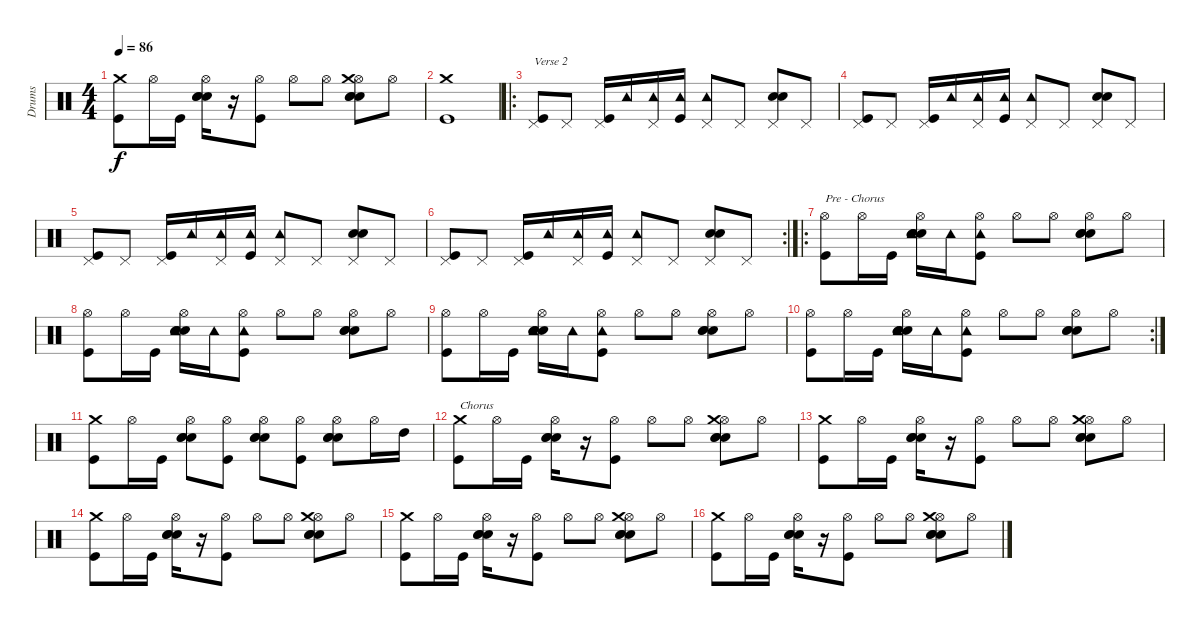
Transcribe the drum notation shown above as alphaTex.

\track ("Drums" "Drums") {instrument percussion}
\staff {score}
\articulation defaults
\ts (4 4)
\tempo 86
\clef neutral
\ks c
("Kick (hit)" "Crash medium (hit)").8{dy f} "Hi-Hat (open)".16 "Kick (hit)".16 ("Electric Snare (hit)" "Hi-Hat (open)" "Electric Snare (hit)" "Electric Snare (hit)").16 r.16 ("Kick (hit)" "Hi-Hat (open)").8 "Hi-Hat (open)".8 "Hi-Hat (open)".8 ("Electric Snare (hit)" "Hi-Hat (open)" "Electric Snare (hit)" "Electric Snare (hit)" "Crash medium (hit)").8 "Hi-Hat (open)".8 |
("Kick (hit)" "Crash medium (hit)").1 |
\ro
("Kick (hit)" "Pedal Hi-Hat (hit)").8{txt "Verse 2"} "Pedal Hi-Hat (hit)".8 ("Kick (hit)" "Pedal Hi-Hat (hit)").16 "Tambourine (hit)".16 ("Pedal Hi-Hat (hit)" "Tambourine (hit)").16 ("Kick (hit)" "Tambourine (hit)").16 ("Pedal Hi-Hat (hit)" "Tambourine (hit)").8 "Pedal Hi-Hat (hit)".8 ("Electric Snare (hit)" "Pedal Hi-Hat (hit)" "Electric Snare (hit)").8 "Pedal Hi-Hat (hit)".8 |
("Kick (hit)" "Pedal Hi-Hat (hit)").8 "Pedal Hi-Hat (hit)".8 ("Kick (hit)" "Pedal Hi-Hat (hit)").16 "Tambourine (hit)".16 ("Pedal Hi-Hat (hit)" "Tambourine (hit)").16 ("Kick (hit)" "Tambourine (hit)").16 ("Pedal Hi-Hat (hit)" "Tambourine (hit)").8 "Pedal Hi-Hat (hit)".8 ("Electric Snare (hit)" "Pedal Hi-Hat (hit)" "Electric Snare (hit)").8 "Pedal Hi-Hat (hit)".8 |
("Kick (hit)" "Pedal Hi-Hat (hit)").8 "Pedal Hi-Hat (hit)".8 ("Kick (hit)" "Pedal Hi-Hat (hit)").16 "Tambourine (hit)".16 ("Pedal Hi-Hat (hit)" "Tambourine (hit)").16 ("Kick (hit)" "Tambourine (hit)").16 ("Pedal Hi-Hat (hit)" "Tambourine (hit)").8 "Pedal Hi-Hat (hit)".8 ("Electric Snare (hit)" "Pedal Hi-Hat (hit)" "Electric Snare (hit)").8 "Pedal Hi-Hat (hit)".8 |
\rc 2
("Kick (hit)" "Pedal Hi-Hat (hit)").8 "Pedal Hi-Hat (hit)".8 ("Kick (hit)" "Pedal Hi-Hat (hit)").16 "Tambourine (hit)".16 ("Pedal Hi-Hat (hit)" "Tambourine (hit)").16 ("Kick (hit)" "Tambourine (hit)").16 ("Pedal Hi-Hat (hit)" "Tambourine (hit)").8 "Pedal Hi-Hat (hit)".8 ("Electric Snare (hit)" "Pedal Hi-Hat (hit)" "Electric Snare (hit)").8 "Pedal Hi-Hat (hit)".8 |
\ro
("Kick (hit)" "Hi-Hat (open)").8{txt "Pre - Chorus"} "Hi-Hat (open)".16 "Kick (hit)".16 ("Electric Snare (hit)" "Hi-Hat (open)" "Tambourine (hit)" "Electric Snare (hit)" "Electric Snare (hit)").16 "Tambourine (hit)".16 ("Kick (hit)" "Hi-Hat (open)" "Tambourine (hit)").8 "Hi-Hat (open)".8 "Hi-Hat (open)".8 ("Electric Snare (hit)" "Hi-Hat (open)" "Electric Snare (hit)" "Electric Snare (hit)").8 "Hi-Hat (open)".8 |
("Kick (hit)" "Hi-Hat (open)").8 "Hi-Hat (open)".16 "Kick (hit)".16 ("Electric Snare (hit)" "Hi-Hat (open)" "Tambourine (hit)" "Electric Snare (hit)" "Electric Snare (hit)").16 "Tambourine (hit)".16 ("Kick (hit)" "Hi-Hat (open)" "Tambourine (hit)").8 "Hi-Hat (open)".8 "Hi-Hat (open)".8 ("Electric Snare (hit)" "Hi-Hat (open)" "Electric Snare (hit)" "Electric Snare (hit)").8 "Hi-Hat (open)".8 |
("Kick (hit)" "Hi-Hat (open)").8 "Hi-Hat (open)".16 "Kick (hit)".16 ("Electric Snare (hit)" "Hi-Hat (open)" "Tambourine (hit)" "Electric Snare (hit)" "Electric Snare (hit)").16 "Tambourine (hit)".16 ("Kick (hit)" "Hi-Hat (open)" "Tambourine (hit)").8 "Hi-Hat (open)".8 "Hi-Hat (open)".8 ("Electric Snare (hit)" "Hi-Hat (open)" "Electric Snare (hit)" "Electric Snare (hit)").8 "Hi-Hat (open)".8 |
\rc 2
("Kick (hit)" "Hi-Hat (open)").8 "Hi-Hat (open)".16 "Kick (hit)".16 ("Electric Snare (hit)" "Hi-Hat (open)" "Tambourine (hit)" "Electric Snare (hit)" "Electric Snare (hit)").16 "Tambourine (hit)".16 ("Kick (hit)" "Hi-Hat (open)" "Tambourine (hit)").8 "Hi-Hat (open)".8 "Hi-Hat (open)".8 ("Electric Snare (hit)" "Hi-Hat (open)" "Electric Snare (hit)" "Electric Snare (hit)").8 "Hi-Hat (open)".8 |
("Crash medium (hit)" "Kick (hit)").8 "Hi-Hat (open)".16 "Kick (hit)".16 ("Hi-Hat (open)" "Electric Snare (hit)" "Electric Snare (hit)" "Electric Snare (hit)").8 ("Hi-Hat (open)" "Kick (hit)").8 ("Hi-Hat (open)" "Electric Snare (hit)" "Electric Snare (hit)" "Electric Snare (hit)").8 ("Hi-Hat (open)" "Kick (hit)").8 ("Hi-Hat (open)" "Electric Snare (hit)" "Electric Snare (hit)" "Electric Snare (hit)").8 "Hi-Hat (open)".16 "High Tom (hit)".16 |
("Kick (hit)" "Crash medium (hit)").8{txt "Chorus"} "Hi-Hat (open)".16 "Kick (hit)".16 ("Electric Snare (hit)" "Hi-Hat (open)" "Electric Snare (hit)" "Electric Snare (hit)").16 r.16 ("Kick (hit)" "Hi-Hat (open)").8 "Hi-Hat (open)".8 "Hi-Hat (open)".8 ("Electric Snare (hit)" "Hi-Hat (open)" "Electric Snare (hit)" "Electric Snare (hit)" "Crash medium (hit)").8 "Hi-Hat (open)".8 |
("Kick (hit)" "Crash medium (hit)").8 "Hi-Hat (open)".16 "Kick (hit)".16 ("Electric Snare (hit)" "Hi-Hat (open)" "Electric Snare (hit)" "Electric Snare (hit)").16 r.16 ("Kick (hit)" "Hi-Hat (open)").8 "Hi-Hat (open)".8 "Hi-Hat (open)".8 ("Electric Snare (hit)" "Hi-Hat (open)" "Electric Snare (hit)" "Electric Snare (hit)" "Crash medium (hit)").8 "Hi-Hat (open)".8 |
("Kick (hit)" "Crash medium (hit)").8 "Hi-Hat (open)".16 "Kick (hit)".16 ("Electric Snare (hit)" "Hi-Hat (open)" "Electric Snare (hit)" "Electric Snare (hit)").16 r.16 ("Kick (hit)" "Hi-Hat (open)").8 "Hi-Hat (open)".8 "Hi-Hat (open)".8 ("Electric Snare (hit)" "Hi-Hat (open)" "Electric Snare (hit)" "Electric Snare (hit)" "Crash medium (hit)").8 "Hi-Hat (open)".8 |
("Kick (hit)" "Crash medium (hit)").8 "Hi-Hat (open)".16 "Kick (hit)".16 ("Electric Snare (hit)" "Hi-Hat (open)" "Electric Snare (hit)" "Electric Snare (hit)").16 r.16 ("Kick (hit)" "Hi-Hat (open)").8 "Hi-Hat (open)".8 "Hi-Hat (open)".8 ("Electric Snare (hit)" "Hi-Hat (open)" "Electric Snare (hit)" "Electric Snare (hit)" "Crash medium (hit)").8 "Hi-Hat (open)".8 |
("Kick (hit)" "Crash medium (hit)").8 "Hi-Hat (open)".16 "Kick (hit)".16 ("Electric Snare (hit)" "Hi-Hat (open)" "Electric Snare (hit)" "Electric Snare (hit)").16 r.16 ("Kick (hit)" "Hi-Hat (open)").8 "Hi-Hat (open)".8 "Hi-Hat (open)".8 ("Electric Snare (hit)" "Hi-Hat (open)" "Electric Snare (hit)" "Electric Snare (hit)" "Crash medium (hit)").8 "Hi-Hat (open)".8
